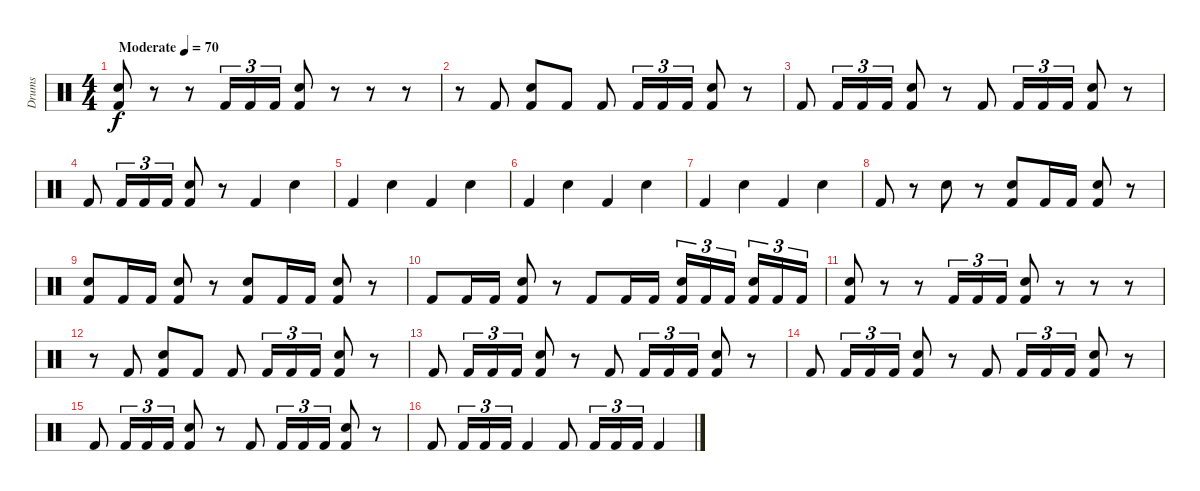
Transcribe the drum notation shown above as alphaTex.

\track ("Drums" "Drums") {instrument percussion}
\staff
\articulation defaults
\ts (4 4)
\tempo (70 "Moderate")
\clef neutral
\ks c
("Kick (hit) 2" "Snare (hit) 2").8{dy f} r.8 r.8 "Kick (hit) 2".16{tu (3 2)} "Kick (hit) 2".16{tu (3 2)} "Kick (hit) 2".16{tu (3 2)} ("Kick (hit) 2" "Snare (hit) 2").8 r.8 r.8 r.8 |
r.8 "Kick (hit) 2".8 ("Kick (hit) 2" "Snare (hit) 2").8 "Kick (hit) 2".8 "Kick (hit) 2".8 "Kick (hit) 2".16{tu (3 2)} "Kick (hit) 2".16{tu (3 2)} "Kick (hit) 2".16{tu (3 2)} ("Kick (hit) 2" "Snare (hit) 2").8 r.8 |
"Kick (hit) 2".8 "Kick (hit) 2".16{tu (3 2)} "Kick (hit) 2".16{tu (3 2)} "Kick (hit) 2".16{tu (3 2)} ("Kick (hit) 2" "Snare (hit) 2").8 r.8 "Kick (hit) 2".8 "Kick (hit) 2".16{tu (3 2)} "Kick (hit) 2".16{tu (3 2)} "Kick (hit) 2".16{tu (3 2)} ("Kick (hit) 2" "Snare (hit) 2").8 r.8 |
"Kick (hit) 2".8 "Kick (hit) 2".16{tu (3 2)} "Kick (hit) 2".16{tu (3 2)} "Kick (hit) 2".16{tu (3 2)} ("Kick (hit) 2" "Snare (hit) 2").8 r.8 "Kick (hit) 2".4 "Snare (hit) 2".4 |
"Kick (hit) 2".4 "Snare (hit) 2".4 "Kick (hit) 2".4 "Snare (hit) 2".4 |
"Kick (hit) 2".4 "Snare (hit) 2".4 "Kick (hit) 2".4 "Snare (hit) 2".4 |
"Kick (hit) 2".4 "Snare (hit) 2".4 "Kick (hit) 2".4 "Snare (hit) 2".4 |
"Kick (hit) 2".8 r.8 "Snare (hit) 2".8 r.8 ("Kick (hit) 2" "Snare (hit) 2").8 "Kick (hit) 2".16 "Kick (hit) 2".16 ("Kick (hit) 2" "Snare (hit) 2").8 r.8 |
("Kick (hit) 2" "Snare (hit) 2").8 "Kick (hit) 2".16 "Kick (hit) 2".16 ("Kick (hit) 2" "Snare (hit) 2").8 r.8 ("Kick (hit) 2" "Snare (hit) 2").8 "Kick (hit) 2".16 "Kick (hit) 2".16 ("Kick (hit) 2" "Snare (hit) 2").8 r.8 |
"Kick (hit) 2".8 "Kick (hit) 2".16 "Kick (hit) 2".16 ("Kick (hit) 2" "Snare (hit) 2").8 r.8 "Kick (hit) 2".8 "Kick (hit) 2".16 "Kick (hit) 2".16 ("Kick (hit) 2" "Snare (hit) 2").16{tu (3 2)} "Kick (hit) 2".16{tu (3 2)} "Kick (hit) 2".16{tu (3 2) beam splitsecondary} ("Kick (hit) 2" "Snare (hit) 2").16{tu (3 2)} "Kick (hit) 2".16{tu (3 2)} "Kick (hit) 2".16{tu (3 2)} |
("Kick (hit) 2" "Snare (hit) 2").8 r.8 r.8 "Kick (hit) 2".16{tu (3 2)} "Kick (hit) 2".16{tu (3 2)} "Kick (hit) 2".16{tu (3 2)} ("Kick (hit) 2" "Snare (hit) 2").8 r.8 r.8 r.8 |
r.8 "Kick (hit) 2".8 ("Kick (hit) 2" "Snare (hit) 2").8 "Kick (hit) 2".8 "Kick (hit) 2".8 "Kick (hit) 2".16{tu (3 2)} "Kick (hit) 2".16{tu (3 2)} "Kick (hit) 2".16{tu (3 2)} ("Kick (hit) 2" "Snare (hit) 2").8 r.8 |
"Kick (hit) 2".8 "Kick (hit) 2".16{tu (3 2)} "Kick (hit) 2".16{tu (3 2)} "Kick (hit) 2".16{tu (3 2)} ("Kick (hit) 2" "Snare (hit) 2").8 r.8 "Kick (hit) 2".8 "Kick (hit) 2".16{tu (3 2)} "Kick (hit) 2".16{tu (3 2)} "Kick (hit) 2".16{tu (3 2)} ("Kick (hit) 2" "Snare (hit) 2").8 r.8 |
"Kick (hit) 2".8 "Kick (hit) 2".16{tu (3 2)} "Kick (hit) 2".16{tu (3 2)} "Kick (hit) 2".16{tu (3 2)} ("Kick (hit) 2" "Snare (hit) 2").8 r.8 "Kick (hit) 2".8 "Kick (hit) 2".16{tu (3 2)} "Kick (hit) 2".16{tu (3 2)} "Kick (hit) 2".16{tu (3 2)} ("Kick (hit) 2" "Snare (hit) 2").8 r.8 |
"Kick (hit) 2".8 "Kick (hit) 2".16{tu (3 2)} "Kick (hit) 2".16{tu (3 2)} "Kick (hit) 2".16{tu (3 2)} ("Kick (hit) 2" "Snare (hit) 2").8 r.8 "Kick (hit) 2".8 "Kick (hit) 2".16{tu (3 2)} "Kick (hit) 2".16{tu (3 2)} "Kick (hit) 2".16{tu (3 2)} ("Kick (hit) 2" "Snare (hit) 2").8 r.8 |
"Kick (hit) 2".8 "Kick (hit) 2".16{tu (3 2)} "Kick (hit) 2".16{tu (3 2)} "Kick (hit) 2".16{tu (3 2)} "Kick (hit) 2".4 "Kick (hit) 2".8 "Kick (hit) 2".16{tu (3 2)} "Kick (hit) 2".16{tu (3 2)} "Kick (hit) 2".16{tu (3 2)} "Kick (hit) 2".4
